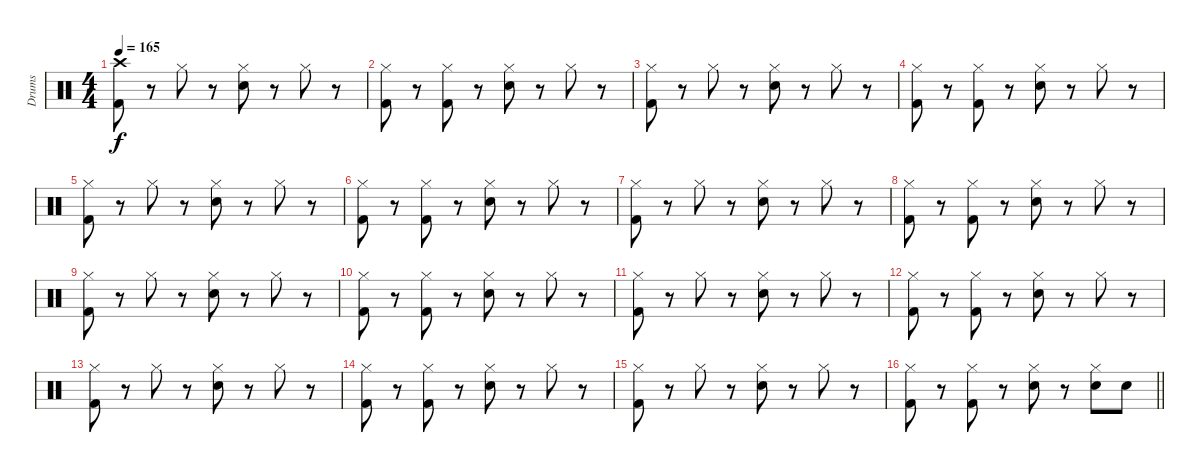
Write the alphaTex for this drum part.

\track ("Drums" "Drums") {instrument percussion}
\staff {score}
\articulation defaults
\ts (4 4)
\tempo 165
\clef neutral
\ks c
("Crash high (hit)" "Kick (hit) 2").8{dy f} r.8 "Hi-Hat (closed)".8 r.8 ("Hi-Hat (closed)" "Electric Snare (hit)").8 r.8 "Hi-Hat (closed)".8 r.8 |
("Hi-Hat (closed)" "Kick (hit) 2").8 r.8 ("Hi-Hat (closed)" "Kick (hit) 2").8 r.8 ("Hi-Hat (closed)" "Electric Snare (hit)").8 r.8 "Hi-Hat (closed)".8 r.8 |
("Hi-Hat (closed)" "Kick (hit) 2").8 r.8 "Hi-Hat (closed)".8 r.8 ("Hi-Hat (closed)" "Electric Snare (hit)").8 r.8 "Hi-Hat (closed)".8 r.8 |
("Hi-Hat (closed)" "Kick (hit) 2").8 r.8 ("Hi-Hat (closed)" "Kick (hit) 2").8 r.8 ("Hi-Hat (closed)" "Electric Snare (hit)").8 r.8 "Hi-Hat (closed)".8 r.8 |
("Hi-Hat (closed)" "Kick (hit) 2").8 r.8 "Hi-Hat (closed)".8 r.8 ("Hi-Hat (closed)" "Electric Snare (hit)").8 r.8 "Hi-Hat (closed)".8 r.8 |
("Hi-Hat (closed)" "Kick (hit) 2").8 r.8 ("Hi-Hat (closed)" "Kick (hit) 2").8 r.8 ("Hi-Hat (closed)" "Electric Snare (hit)").8 r.8 "Hi-Hat (closed)".8 r.8 |
("Hi-Hat (closed)" "Kick (hit) 2").8 r.8 "Hi-Hat (closed)".8 r.8 ("Hi-Hat (closed)" "Electric Snare (hit)").8 r.8 "Hi-Hat (closed)".8 r.8 |
("Hi-Hat (closed)" "Kick (hit) 2").8 r.8 ("Hi-Hat (closed)" "Kick (hit) 2").8 r.8 ("Hi-Hat (closed)" "Electric Snare (hit)").8 r.8 "Hi-Hat (closed)".8 r.8 |
("Hi-Hat (closed)" "Kick (hit) 2").8 r.8 "Hi-Hat (closed)".8 r.8 ("Hi-Hat (closed)" "Electric Snare (hit)").8 r.8 "Hi-Hat (closed)".8 r.8 |
("Hi-Hat (closed)" "Kick (hit) 2").8 r.8 ("Hi-Hat (closed)" "Kick (hit) 2").8 r.8 ("Hi-Hat (closed)" "Electric Snare (hit)").8 r.8 "Hi-Hat (closed)".8 r.8 |
("Hi-Hat (closed)" "Kick (hit) 2").8 r.8 "Hi-Hat (closed)".8 r.8 ("Hi-Hat (closed)" "Electric Snare (hit)").8 r.8 "Hi-Hat (closed)".8 r.8 |
("Hi-Hat (closed)" "Kick (hit) 2").8 r.8 ("Hi-Hat (closed)" "Kick (hit) 2").8 r.8 ("Hi-Hat (closed)" "Electric Snare (hit)").8 r.8 "Hi-Hat (closed)".8 r.8 |
("Hi-Hat (closed)" "Kick (hit) 2").8 r.8 "Hi-Hat (closed)".8 r.8 ("Hi-Hat (closed)" "Electric Snare (hit)").8 r.8 "Hi-Hat (closed)".8 r.8 |
("Hi-Hat (closed)" "Kick (hit) 2").8 r.8 ("Hi-Hat (closed)" "Kick (hit) 2").8 r.8 ("Hi-Hat (closed)" "Electric Snare (hit)").8 r.8 "Hi-Hat (closed)".8 r.8 |
("Hi-Hat (closed)" "Kick (hit) 2").8 r.8 "Hi-Hat (closed)".8 r.8 ("Hi-Hat (closed)" "Electric Snare (hit)").8 r.8 "Hi-Hat (closed)".8 r.8 |
\barLineRight lightlight
("Hi-Hat (closed)" "Kick (hit) 2").8 r.8 ("Hi-Hat (closed)" "Kick (hit) 2").8 r.8 ("Hi-Hat (closed)" "Electric Snare (hit)").8 r.8 ("Hi-Hat (closed)" "Electric Snare (hit)").8 "Electric Snare (hit)".8
